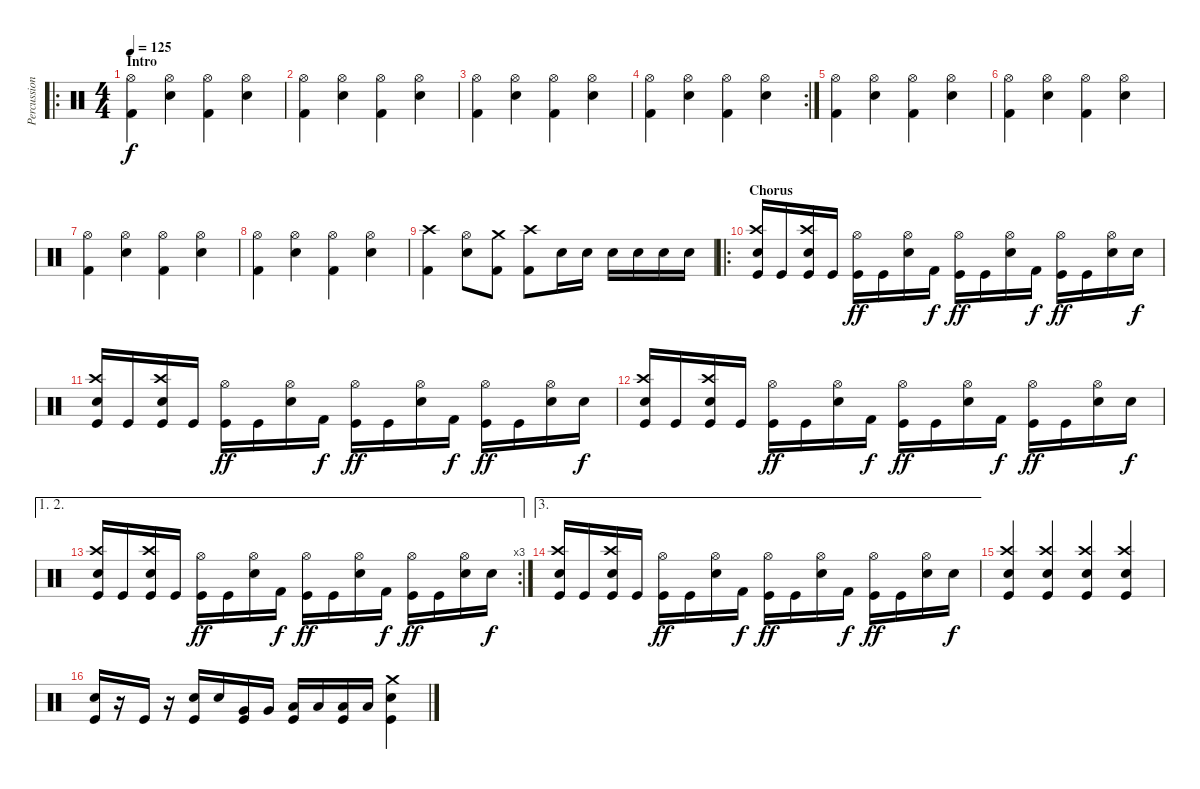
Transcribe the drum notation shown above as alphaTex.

\track ("Percussion" "Percussion") {instrument percussion}
\staff {score}
\articulation defaults
\ro
\ts (4 4)
\section ("" "Intro")
\tempo 125
\clef neutral
\ks c
("Kick (hit) 2" "Hi-Hat (open)").4{dy f} ("Hi-Hat (open)" "Snare (hit) 2").4 ("Kick (hit) 2" "Hi-Hat (open)").4 ("Hi-Hat (open)" "Snare (hit) 2").4 |
("Kick (hit) 2" "Hi-Hat (open)").4 ("Hi-Hat (open)" "Snare (hit) 2").4 ("Kick (hit) 2" "Hi-Hat (open)").4 ("Hi-Hat (open)" "Snare (hit) 2").4 |
("Kick (hit) 2" "Hi-Hat (open)").4 ("Hi-Hat (open)" "Snare (hit) 2").4 ("Kick (hit) 2" "Hi-Hat (open)").4 ("Hi-Hat (open)" "Snare (hit) 2").4 |
\rc 2
("Kick (hit) 2" "Hi-Hat (open)").4 ("Hi-Hat (open)" "Snare (hit) 2").4 ("Kick (hit) 2" "Hi-Hat (open)").4 ("Hi-Hat (open)" "Snare (hit) 2").4 |
("Kick (hit) 2" "Hi-Hat (open)").4 ("Hi-Hat (open)" "Snare (hit) 2").4 ("Kick (hit) 2" "Hi-Hat (open)").4 ("Hi-Hat (open)" "Snare (hit) 2").4 |
("Kick (hit) 2" "Hi-Hat (open)").4 ("Hi-Hat (open)" "Snare (hit) 2").4 ("Kick (hit) 2" "Hi-Hat (open)").4 ("Hi-Hat (open)" "Snare (hit) 2").4 |
("Kick (hit) 2" "Hi-Hat (open)").4 ("Hi-Hat (open)" "Snare (hit) 2").4 ("Kick (hit) 2" "Hi-Hat (open)").4 ("Hi-Hat (open)" "Snare (hit) 2").4 |
("Kick (hit) 2" "Hi-Hat (open)").4 ("Hi-Hat (open)" "Snare (hit) 2").4 ("Kick (hit) 2" "Hi-Hat (open)").4 ("Hi-Hat (open)" "Snare (hit) 2").4 |
("Kick (hit) 2" "Crash high (hit)").4 ("Hi-Hat (open)" "Snare (hit) 2").8 ("Kick (hit) 2" "Crash medium (hit)").8 ("Kick (hit) 2" "Crash high (hit)").8 "Snare (hit) 2".16 "Snare (hit) 2".16 "Snare (hit) 2".16 "Snare (hit) 2".16 "Snare (hit) 2".16 "Snare (hit) 2".16 |
\ro
\section ("" "Chorus")
("Crash high (hit)" "Snare (hit) 2" "Kick (hit)").16 "Kick (hit)".16 ("Crash high (hit)" "Snare (hit) 2" "Kick (hit)").16 "Kick (hit)".16 ("Hi-Hat (open)" "Kick (hit)").16{dy ff} "Kick (hit)".16 ("Hi-Hat (open)" "Snare (hit) 2").16 "Kick (hit) 2".16{dy f} ("Hi-Hat (open)" "Kick (hit)").16{dy ff} "Kick (hit)".16 ("Hi-Hat (open)" "Snare (hit) 2").16 "Kick (hit) 2".16{dy f} ("Hi-Hat (open)" "Kick (hit)").16{dy ff} "Kick (hit)".16 ("Hi-Hat (open)" "Snare (hit) 2").16 "Snare (hit) 2".16{dy f} |
("Crash high (hit)" "Snare (hit) 2" "Kick (hit)").16 "Kick (hit)".16 ("Crash high (hit)" "Snare (hit) 2" "Kick (hit)").16 "Kick (hit)".16 ("Hi-Hat (open)" "Kick (hit)").16{dy ff} "Kick (hit)".16 ("Hi-Hat (open)" "Snare (hit) 2").16 "Kick (hit) 2".16{dy f} ("Hi-Hat (open)" "Kick (hit)").16{dy ff} "Kick (hit)".16 ("Hi-Hat (open)" "Snare (hit) 2").16 "Kick (hit) 2".16{dy f} ("Hi-Hat (open)" "Kick (hit)").16{dy ff} "Kick (hit)".16 ("Hi-Hat (open)" "Snare (hit) 2").16 "Snare (hit) 2".16{dy f} |
("Crash high (hit)" "Snare (hit) 2" "Kick (hit)").16 "Kick (hit)".16 ("Crash high (hit)" "Snare (hit) 2" "Kick (hit)").16 "Kick (hit)".16 ("Hi-Hat (open)" "Kick (hit)").16{dy ff} "Kick (hit)".16 ("Hi-Hat (open)" "Snare (hit) 2").16 "Kick (hit) 2".16{dy f} ("Hi-Hat (open)" "Kick (hit)").16{dy ff} "Kick (hit)".16 ("Hi-Hat (open)" "Snare (hit) 2").16 "Kick (hit) 2".16{dy f} ("Hi-Hat (open)" "Kick (hit)").16{dy ff} "Kick (hit)".16 ("Hi-Hat (open)" "Snare (hit) 2").16 "Snare (hit) 2".16{dy f} |
\ae (1 2)
\rc 3
("Crash high (hit)" "Snare (hit) 2" "Kick (hit)").16 "Kick (hit)".16 ("Crash high (hit)" "Snare (hit) 2" "Kick (hit)").16 "Kick (hit)".16 ("Hi-Hat (open)" "Kick (hit)").16{dy ff} "Kick (hit)".16 ("Hi-Hat (open)" "Snare (hit) 2").16 "Kick (hit) 2".16{dy f} ("Hi-Hat (open)" "Kick (hit)").16{dy ff} "Kick (hit)".16 ("Hi-Hat (open)" "Snare (hit) 2").16 "Kick (hit) 2".16{dy f} ("Hi-Hat (open)" "Kick (hit)").16{dy ff} "Kick (hit)".16 ("Hi-Hat (open)" "Snare (hit) 2").16 "Snare (hit) 2".16{dy f} |
\ae 3
("Crash high (hit)" "Snare (hit) 2" "Kick (hit)").16 "Kick (hit)".16 ("Crash high (hit)" "Snare (hit) 2" "Kick (hit)").16 "Kick (hit)".16 ("Hi-Hat (open)" "Kick (hit)").16{dy ff} "Kick (hit)".16 ("Hi-Hat (open)" "Snare (hit) 2").16 "Kick (hit) 2".16{dy f} ("Hi-Hat (open)" "Kick (hit)").16{dy ff} "Kick (hit)".16 ("Hi-Hat (open)" "Snare (hit) 2").16 "Kick (hit) 2".16{dy f} ("Hi-Hat (open)" "Kick (hit)").16{dy ff} "Kick (hit)".16 ("Hi-Hat (open)" "Snare (hit) 2").16 "Snare (hit) 2".16{dy f} |
("Crash high (hit)" "Snare (hit) 2" "Kick (hit)").4 ("Crash high (hit)" "Snare (hit) 2" "Kick (hit)").4 ("Crash high (hit)" "Snare (hit) 2" "Kick (hit)").4 ("Crash high (hit)" "Snare (hit) 2" "Kick (hit)").4 |
("Electric Snare (hit)" "Kick (hit)").16 r.16 "Kick (hit)".16 r.16 ("Electric Snare (hit)" "Kick (hit)").16 "Electric Snare (hit)".16 ("Very Low Tom (hit)" "Kick (hit)").16 "Very Low Tom (hit)".16 ("Low Floor Tom (hit)" "Kick (hit)").16 "Low Floor Tom (hit)".16 ("Low Floor Tom (hit)" "Kick (hit)").16 "Low Floor Tom (hit)".16 ("Crash medium (hit)" "Electric Snare (hit)" "Kick (hit)").4
